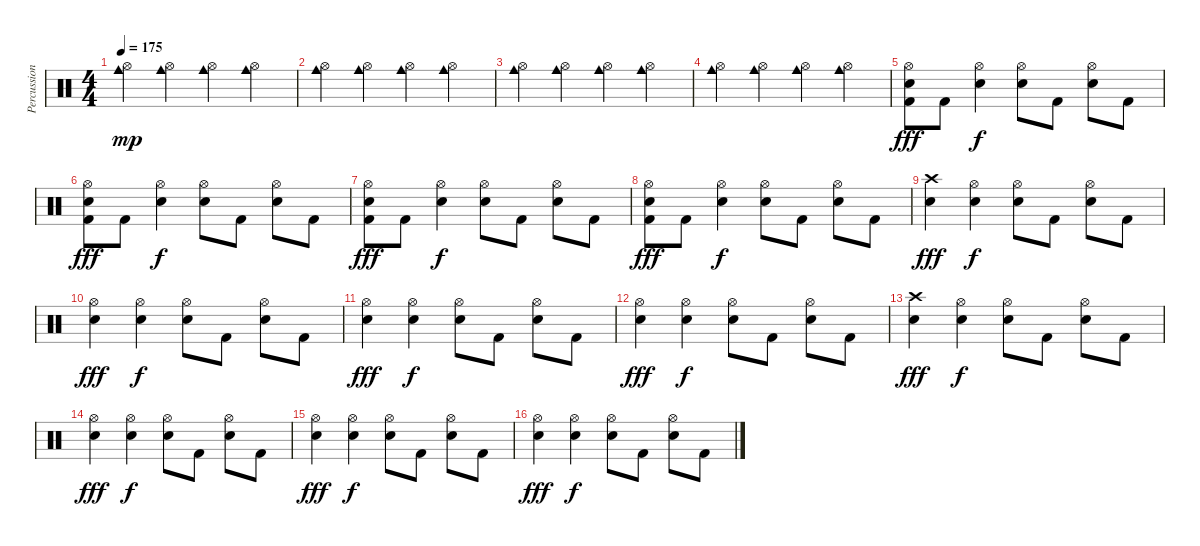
\track ("Percussion" "Percussion") {instrument percussion}
\staff {score}
\articulation defaults
\ts (4 4)
\tempo 175
\clef neutral
\ks c
("Hi-Hat (open)" "Cowbell medium (hit)").4{dy mp} ("Hi-Hat (open)" "Cowbell medium (hit)").4 ("Hi-Hat (open)" "Cowbell medium (hit)").4 ("Hi-Hat (open)" "Cowbell medium (hit)").4 |
("Hi-Hat (open)" "Cowbell medium (hit)").4 ("Hi-Hat (open)" "Cowbell medium (hit)").4 ("Hi-Hat (open)" "Cowbell medium (hit)").4 ("Hi-Hat (open)" "Cowbell medium (hit)").4 |
("Hi-Hat (open)" "Cowbell medium (hit)").4 ("Hi-Hat (open)" "Cowbell medium (hit)").4 ("Hi-Hat (open)" "Cowbell medium (hit)").4 ("Hi-Hat (open)" "Cowbell medium (hit)").4 |
("Hi-Hat (open)" "Cowbell medium (hit)").4 ("Hi-Hat (open)" "Cowbell medium (hit)").4 ("Hi-Hat (open)" "Cowbell medium (hit)").4 ("Hi-Hat (open)" "Cowbell medium (hit)").4 |
("Hi-Hat (open)" "Snare (hit) 2" "Kick (hit) 2").8{dy fff} "Kick (hit) 2".8 ("Hi-Hat (open)" "Snare (hit) 2").4{dy f} ("Hi-Hat (open)" "Snare (hit) 2").8 "Kick (hit) 2".8 ("Hi-Hat (open)" "Snare (hit) 2").8 "Kick (hit) 2".8 |
("Hi-Hat (open)" "Snare (hit) 2" "Kick (hit) 2").8{dy fff} "Kick (hit) 2".8 ("Hi-Hat (open)" "Snare (hit) 2").4{dy f} ("Hi-Hat (open)" "Snare (hit) 2").8 "Kick (hit) 2".8 ("Hi-Hat (open)" "Snare (hit) 2").8 "Kick (hit) 2".8 |
("Hi-Hat (open)" "Snare (hit) 2" "Kick (hit) 2").8{dy fff} "Kick (hit) 2".8 ("Hi-Hat (open)" "Snare (hit) 2").4{dy f} ("Hi-Hat (open)" "Snare (hit) 2").8 "Kick (hit) 2".8 ("Hi-Hat (open)" "Snare (hit) 2").8 "Kick (hit) 2".8 |
("Hi-Hat (open)" "Snare (hit) 2" "Kick (hit) 2").8{dy fff} "Kick (hit) 2".8 ("Hi-Hat (open)" "Snare (hit) 2").4{dy f} ("Hi-Hat (open)" "Snare (hit) 2").8 "Kick (hit) 2".8 ("Hi-Hat (open)" "Snare (hit) 2").8 "Kick (hit) 2".8 |
("Crash high (hit)" "Snare (hit) 2").4{dy fff} ("Hi-Hat (open)" "Snare (hit) 2").4{dy f} ("Hi-Hat (open)" "Snare (hit) 2").8 "Kick (hit) 2".8 ("Hi-Hat (open)" "Snare (hit) 2").8 "Kick (hit) 2".8 |
("Hi-Hat (open)" "Snare (hit) 2").4{dy fff} ("Hi-Hat (open)" "Snare (hit) 2").4{dy f} ("Hi-Hat (open)" "Snare (hit) 2").8 "Kick (hit) 2".8 ("Hi-Hat (open)" "Snare (hit) 2").8 "Kick (hit) 2".8 |
("Hi-Hat (open)" "Snare (hit) 2").4{dy fff} ("Hi-Hat (open)" "Snare (hit) 2").4{dy f} ("Hi-Hat (open)" "Snare (hit) 2").8 "Kick (hit) 2".8 ("Hi-Hat (open)" "Snare (hit) 2").8 "Kick (hit) 2".8 |
("Hi-Hat (open)" "Snare (hit) 2").4{dy fff} ("Hi-Hat (open)" "Snare (hit) 2").4{dy f} ("Hi-Hat (open)" "Snare (hit) 2").8 "Kick (hit) 2".8 ("Hi-Hat (open)" "Snare (hit) 2").8 "Kick (hit) 2".8 |
("Crash high (hit)" "Snare (hit) 2").4{dy fff} ("Hi-Hat (open)" "Snare (hit) 2").4{dy f} ("Hi-Hat (open)" "Snare (hit) 2").8 "Kick (hit) 2".8 ("Hi-Hat (open)" "Snare (hit) 2").8 "Kick (hit) 2".8 |
("Hi-Hat (open)" "Snare (hit) 2").4{dy fff} ("Hi-Hat (open)" "Snare (hit) 2").4{dy f} ("Hi-Hat (open)" "Snare (hit) 2").8 "Kick (hit) 2".8 ("Hi-Hat (open)" "Snare (hit) 2").8 "Kick (hit) 2".8 |
("Hi-Hat (open)" "Snare (hit) 2").4{dy fff} ("Hi-Hat (open)" "Snare (hit) 2").4{dy f} ("Hi-Hat (open)" "Snare (hit) 2").8 "Kick (hit) 2".8 ("Hi-Hat (open)" "Snare (hit) 2").8 "Kick (hit) 2".8 |
("Hi-Hat (open)" "Snare (hit) 2").4{dy fff} ("Hi-Hat (open)" "Snare (hit) 2").4{dy f} ("Hi-Hat (open)" "Snare (hit) 2").8 "Kick (hit) 2".8 ("Hi-Hat (open)" "Snare (hit) 2").8 "Kick (hit) 2".8
